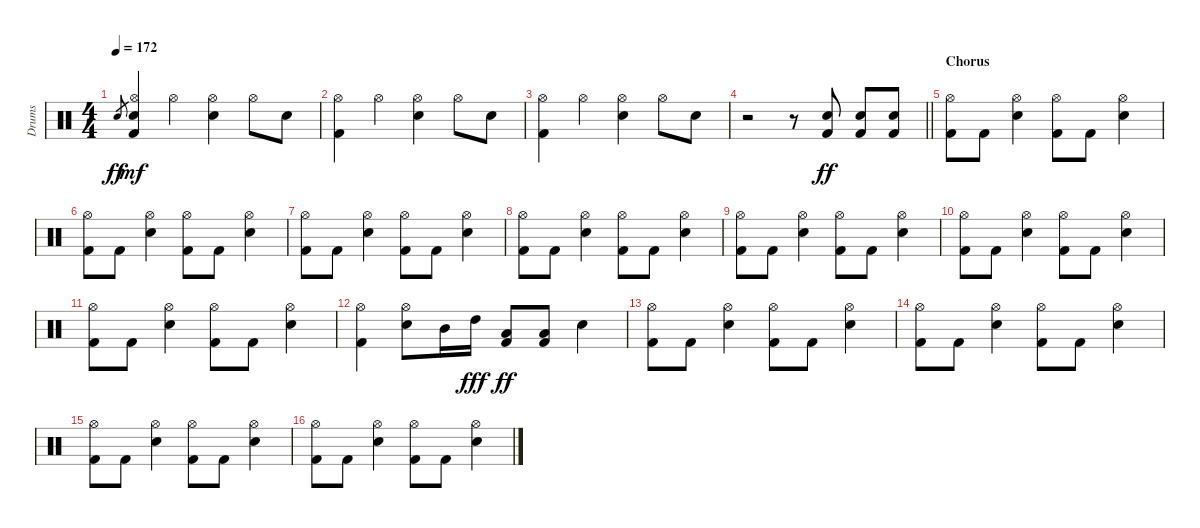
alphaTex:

\track ("Drums" "Drums") {instrument percussion}
\staff {score}
\articulation defaults
\ts (4 4)
\tempo 172
\clef neutral
\ks c "Snare (hit) 2".8{gr dy ff}
("Hi-Hat (open)" "Snare (hit) 2" "Kick (hit) 2").4{dy mf} "Hi-Hat (open)".4 ("Hi-Hat (open)" "Snare (hit) 2").4 "Hi-Hat (open)".8 "Snare (hit) 2".8 |
("Hi-Hat (open)" "Kick (hit) 2").4 "Hi-Hat (open)".4 ("Hi-Hat (open)" "Snare (hit) 2").4 "Hi-Hat (open)".8 "Snare (hit) 2".8 |
("Hi-Hat (open)" "Kick (hit) 2").4 "Hi-Hat (open)".4 ("Hi-Hat (open)" "Snare (hit) 2").4 "Hi-Hat (open)".8 "Snare (hit) 2".8 |
\barLineRight lightlight
r.2 r.8 ("Snare (hit) 2" "Kick (hit) 2").8{dy ff} ("Snare (hit) 2" "Kick (hit) 2").8 ("Snare (hit) 2" "Kick (hit) 2").8 |
\section ("" "Chorus")
("Hi-Hat (open)" "Kick (hit) 2").8 "Kick (hit) 2".8 ("Hi-Hat (open)" "Snare (hit) 2").4 ("Hi-Hat (open)" "Kick (hit) 2").8 "Kick (hit) 2".8 ("Hi-Hat (open)" "Snare (hit) 2").4 |
("Hi-Hat (open)" "Kick (hit) 2").8 "Kick (hit) 2".8 ("Hi-Hat (open)" "Snare (hit) 2").4 ("Hi-Hat (open)" "Kick (hit) 2").8 "Kick (hit) 2".8 ("Hi-Hat (open)" "Snare (hit) 2").4 |
("Hi-Hat (open)" "Kick (hit) 2").8 "Kick (hit) 2".8 ("Hi-Hat (open)" "Snare (hit) 2").4 ("Hi-Hat (open)" "Kick (hit) 2").8 "Kick (hit) 2".8 ("Hi-Hat (open)" "Snare (hit) 2").4 |
("Hi-Hat (open)" "Kick (hit) 2").8 "Kick (hit) 2".8 ("Hi-Hat (open)" "Snare (hit) 2").4 ("Hi-Hat (open)" "Kick (hit) 2").8 "Kick (hit) 2".8 ("Hi-Hat (open)" "Snare (hit) 2").4 |
("Hi-Hat (open)" "Kick (hit) 2").8 "Kick (hit) 2".8 ("Hi-Hat (open)" "Snare (hit) 2").4 ("Hi-Hat (open)" "Kick (hit) 2").8 "Kick (hit) 2".8 ("Hi-Hat (open)" "Snare (hit) 2").4 |
("Hi-Hat (open)" "Kick (hit) 2").8 "Kick (hit) 2".8 ("Hi-Hat (open)" "Snare (hit) 2").4 ("Hi-Hat (open)" "Kick (hit) 2").8 "Kick (hit) 2".8 ("Hi-Hat (open)" "Snare (hit) 2").4 |
("Hi-Hat (open)" "Kick (hit) 2").8 "Kick (hit) 2".8 ("Hi-Hat (open)" "Snare (hit) 2").4 ("Hi-Hat (open)" "Kick (hit) 2").8 "Kick (hit) 2".8 ("Hi-Hat (open)" "Snare (hit) 2").4 |
("Hi-Hat (open)" "Kick (hit) 2").4 ("Hi-Hat (open)" "Snare (hit) 2").8 "Mid Tom (hit)".16 "High Tom (hit)".16{dy fff} ("Low Floor Tom (hit)" "Kick (hit) 2").8{dy ff} ("Low Floor Tom (hit)" "Kick (hit) 2").8 "Snare (hit) 2".4 |
("Hi-Hat (open)" "Kick (hit) 2").8 "Kick (hit) 2".8 ("Hi-Hat (open)" "Snare (hit) 2").4 ("Hi-Hat (open)" "Kick (hit) 2").8 "Kick (hit) 2".8 ("Hi-Hat (open)" "Snare (hit) 2").4 |
("Hi-Hat (open)" "Kick (hit) 2").8 "Kick (hit) 2".8 ("Hi-Hat (open)" "Snare (hit) 2").4 ("Hi-Hat (open)" "Kick (hit) 2").8 "Kick (hit) 2".8 ("Hi-Hat (open)" "Snare (hit) 2").4 |
("Hi-Hat (open)" "Kick (hit) 2").8 "Kick (hit) 2".8 ("Hi-Hat (open)" "Snare (hit) 2").4 ("Hi-Hat (open)" "Kick (hit) 2").8 "Kick (hit) 2".8 ("Hi-Hat (open)" "Snare (hit) 2").4 |
("Hi-Hat (open)" "Kick (hit) 2").8 "Kick (hit) 2".8 ("Hi-Hat (open)" "Snare (hit) 2").4 ("Hi-Hat (open)" "Kick (hit) 2").8 "Kick (hit) 2".8 ("Hi-Hat (open)" "Snare (hit) 2").4
